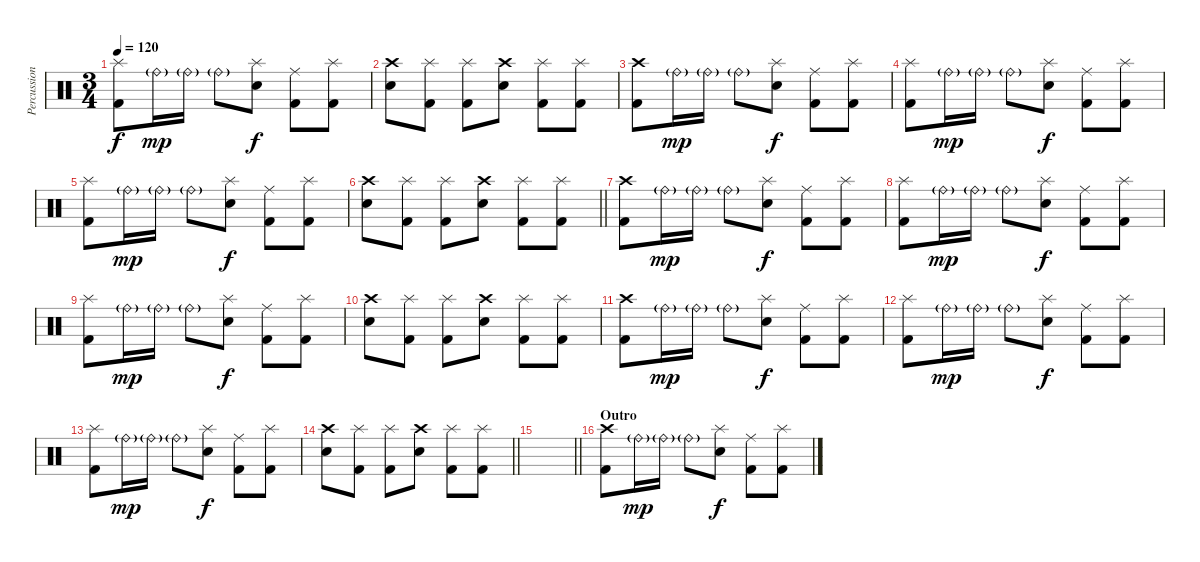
\track ("Percussion" "Percussion") {instrument percussion}
\staff {score}
\articulation defaults
\ts (3 4)
\tempo 120
\clef neutral
\ks c
("Splash (hit)" "Kick (hit) 2").8{dy f} "Ride (bell)"{g}.16{dy mp} "Ride (bell)"{g}.16 "Ride (bell)"{g}.8 ("Splash (hit)" "Electric Snare (hit)").8{dy f} ("Ride (middle)" "Kick (hit) 2").8 ("Splash (hit)" "Kick (hit) 2").8 |
("Crash high (hit)" "Electric Snare (hit)").8 ("Splash (hit)" "Kick (hit) 2").8 ("Splash (hit)" "Kick (hit) 2").8 ("Crash high (hit)" "Electric Snare (hit)").8 ("Splash (hit)" "Kick (hit) 2").8 ("Splash (hit)" "Kick (hit) 2").8 |
("Crash high (hit)" "Kick (hit) 2").8 "Ride (bell)"{g}.16{dy mp} "Ride (bell)"{g}.16 "Ride (bell)"{g}.8 ("Splash (hit)" "Electric Snare (hit)").8{dy f} ("Ride (middle)" "Kick (hit) 2").8 ("Splash (hit)" "Kick (hit) 2").8 |
("Splash (hit)" "Kick (hit) 2").8 "Ride (bell)"{g}.16{dy mp} "Ride (bell)"{g}.16 "Ride (bell)"{g}.8 ("Splash (hit)" "Electric Snare (hit)").8{dy f} ("Ride (middle)" "Kick (hit) 2").8 ("Splash (hit)" "Kick (hit) 2").8 |
("Splash (hit)" "Kick (hit) 2").8 "Ride (bell)"{g}.16{dy mp} "Ride (bell)"{g}.16 "Ride (bell)"{g}.8 ("Splash (hit)" "Electric Snare (hit)").8{dy f} ("Ride (middle)" "Kick (hit) 2").8 ("Splash (hit)" "Kick (hit) 2").8 |
\barLineRight lightlight
("Crash high (hit)" "Electric Snare (hit)").8 ("Splash (hit)" "Kick (hit) 2").8 ("Splash (hit)" "Kick (hit) 2").8 ("Crash high (hit)" "Electric Snare (hit)").8 ("Splash (hit)" "Kick (hit) 2").8 ("Splash (hit)" "Kick (hit) 2").8 |
("Crash high (hit)" "Kick (hit) 2").8 "Ride (bell)"{g}.16{dy mp} "Ride (bell)"{g}.16 "Ride (bell)"{g}.8 ("Splash (hit)" "Electric Snare (hit)").8{dy f} ("Ride (middle)" "Kick (hit) 2").8 ("Splash (hit)" "Kick (hit) 2").8 |
("Splash (hit)" "Kick (hit) 2").8 "Ride (bell)"{g}.16{dy mp} "Ride (bell)"{g}.16 "Ride (bell)"{g}.8 ("Splash (hit)" "Electric Snare (hit)").8{dy f} ("Ride (middle)" "Kick (hit) 2").8 ("Splash (hit)" "Kick (hit) 2").8 |
("Splash (hit)" "Kick (hit) 2").8 "Ride (bell)"{g}.16{dy mp} "Ride (bell)"{g}.16 "Ride (bell)"{g}.8 ("Splash (hit)" "Electric Snare (hit)").8{dy f} ("Ride (middle)" "Kick (hit) 2").8 ("Splash (hit)" "Kick (hit) 2").8 |
("Crash high (hit)" "Electric Snare (hit)").8 ("Splash (hit)" "Kick (hit) 2").8 ("Splash (hit)" "Kick (hit) 2").8 ("Crash high (hit)" "Electric Snare (hit)").8 ("Splash (hit)" "Kick (hit) 2").8 ("Splash (hit)" "Kick (hit) 2").8 |
("Crash high (hit)" "Kick (hit) 2").8 "Ride (bell)"{g}.16{dy mp} "Ride (bell)"{g}.16 "Ride (bell)"{g}.8 ("Splash (hit)" "Electric Snare (hit)").8{dy f} ("Ride (middle)" "Kick (hit) 2").8 ("Splash (hit)" "Kick (hit) 2").8 |
("Splash (hit)" "Kick (hit) 2").8 "Ride (bell)"{g}.16{dy mp} "Ride (bell)"{g}.16 "Ride (bell)"{g}.8 ("Splash (hit)" "Electric Snare (hit)").8{dy f} ("Ride (middle)" "Kick (hit) 2").8 ("Splash (hit)" "Kick (hit) 2").8 |
("Splash (hit)" "Kick (hit) 2").8 "Ride (bell)"{g}.16{dy mp} "Ride (bell)"{g}.16 "Ride (bell)"{g}.8 ("Splash (hit)" "Electric Snare (hit)").8{dy f} ("Ride (middle)" "Kick (hit) 2").8 ("Splash (hit)" "Kick (hit) 2").8 |
\barLineRight lightlight
("Crash high (hit)" "Electric Snare (hit)").8 ("Splash (hit)" "Kick (hit) 2").8 ("Splash (hit)" "Kick (hit) 2").8 ("Crash high (hit)" "Electric Snare (hit)").8 ("Splash (hit)" "Kick (hit) 2").8 ("Splash (hit)" "Kick (hit) 2").8 |
\barLineRight lightlight
|
\section ("" "Outro")
("Crash high (hit)" "Kick (hit) 2").8 "Ride (bell)"{g}.16{dy mp} "Ride (bell)"{g}.16 "Ride (bell)"{g}.8 ("Splash (hit)" "Electric Snare (hit)").8{dy f} ("Ride (middle)" "Kick (hit) 2").8 ("Splash (hit)" "Kick (hit) 2").8
